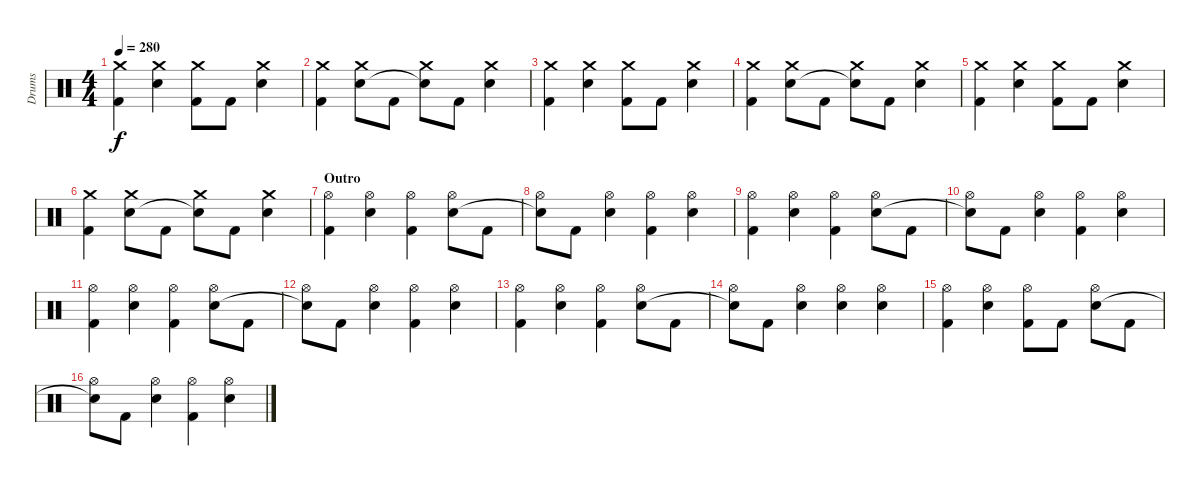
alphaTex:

\track ("Drums" "Drums") {instrument percussion}
\staff {score}
\articulation defaults
\ts (4 4)
\tempo 280
\clef neutral
\ks c
("Crash medium (hit)" "Kick (hit) 2").4{dy f} ("Crash medium (hit)" "Snare (hit) 2").4 ("Crash medium (hit)" "Kick (hit) 2").8 "Kick (hit) 2".8 ("Crash medium (hit)" "Snare (hit) 2").4 |
("Crash medium (hit)" "Kick (hit) 2").4 ("Crash medium (hit)" "Snare (hit) 2").8 "Kick (hit) 2".8 ("Crash medium (hit)" "Snare (hit)"{t}).8 "Kick (hit) 2".8 ("Crash medium (hit)" "Snare (hit) 2").4 |
("Crash medium (hit)" "Kick (hit) 2").4 ("Crash medium (hit)" "Snare (hit) 2").4 ("Crash medium (hit)" "Kick (hit) 2").8 "Kick (hit) 2".8 ("Crash medium (hit)" "Snare (hit) 2").4 |
("Crash medium (hit)" "Kick (hit) 2").4 ("Crash medium (hit)" "Snare (hit) 2").8 "Kick (hit) 2".8 ("Crash medium (hit)" "Snare (hit)"{t}).8 "Kick (hit) 2".8 ("Crash medium (hit)" "Snare (hit) 2").4 |
("Crash medium (hit)" "Kick (hit) 2").4 ("Crash medium (hit)" "Snare (hit) 2").4 ("Crash medium (hit)" "Kick (hit) 2").8 "Kick (hit) 2".8 ("Crash medium (hit)" "Snare (hit) 2").4 |
("Crash medium (hit)" "Kick (hit) 2").4 ("Crash medium (hit)" "Snare (hit) 2").8 "Kick (hit) 2".8 ("Crash medium (hit)" "Snare (hit)"{t}).8 "Kick (hit) 2".8 ("Crash medium (hit)" "Snare (hit) 2").4 |
\section ("" "Outro")
("Hi-Hat (open)" "Kick (hit) 2").4 ("Hi-Hat (open)" "Snare (hit) 2").4 ("Hi-Hat (open)" "Kick (hit) 2").4 ("Hi-Hat (open)" "Snare (hit) 2").8 "Kick (hit) 2".8 |
("Hi-Hat (open)" "Snare (hit)"{t}).8 "Kick (hit) 2".8 ("Hi-Hat (open)" "Snare (hit) 2").4 ("Hi-Hat (open)" "Kick (hit) 2").4 ("Hi-Hat (open)" "Snare (hit) 2").4 |
("Hi-Hat (open)" "Kick (hit) 2").4 ("Hi-Hat (open)" "Snare (hit) 2").4 ("Hi-Hat (open)" "Kick (hit) 2").4 ("Hi-Hat (open)" "Snare (hit) 2").8 "Kick (hit) 2".8 |
("Hi-Hat (open)" "Snare (hit)"{t}).8 "Kick (hit) 2".8 ("Hi-Hat (open)" "Snare (hit) 2").4 ("Hi-Hat (open)" "Kick (hit) 2").4 ("Hi-Hat (open)" "Snare (hit) 2").4 |
("Hi-Hat (open)" "Kick (hit) 2").4 ("Hi-Hat (open)" "Snare (hit) 2").4 ("Hi-Hat (open)" "Kick (hit) 2").4 ("Hi-Hat (open)" "Snare (hit) 2").8 "Kick (hit) 2".8 |
("Hi-Hat (open)" "Snare (hit)"{t}).8 "Kick (hit) 2".8 ("Hi-Hat (open)" "Snare (hit) 2").4 ("Hi-Hat (open)" "Kick (hit) 2").4 ("Hi-Hat (open)" "Snare (hit) 2").4 |
("Hi-Hat (open)" "Kick (hit) 2").4 ("Hi-Hat (open)" "Snare (hit) 2").4 ("Hi-Hat (open)" "Kick (hit) 2").4 ("Hi-Hat (open)" "Snare (hit) 2").8 "Kick (hit) 2".8 |
("Hi-Hat (open)" "Snare (hit)"{t}).8 "Kick (hit) 2".8 ("Hi-Hat (open)" "Snare (hit) 2").4 ("Hi-Hat (open)" "Snare (hit) 2").4 ("Hi-Hat (open)" "Snare (hit) 2").4 |
("Hi-Hat (open)" "Kick (hit) 2").4 ("Hi-Hat (open)" "Snare (hit) 2").4 ("Hi-Hat (open)" "Kick (hit) 2").8 "Kick (hit) 2".8 ("Hi-Hat (open)" "Snare (hit) 2").8 "Kick (hit) 2".8 |
("Hi-Hat (open)" "Snare (hit)"{t}).8 "Kick (hit) 2".8 ("Hi-Hat (open)" "Snare (hit) 2").4 ("Hi-Hat (open)" "Kick (hit) 2").4 ("Hi-Hat (open)" "Snare (hit) 2").4
